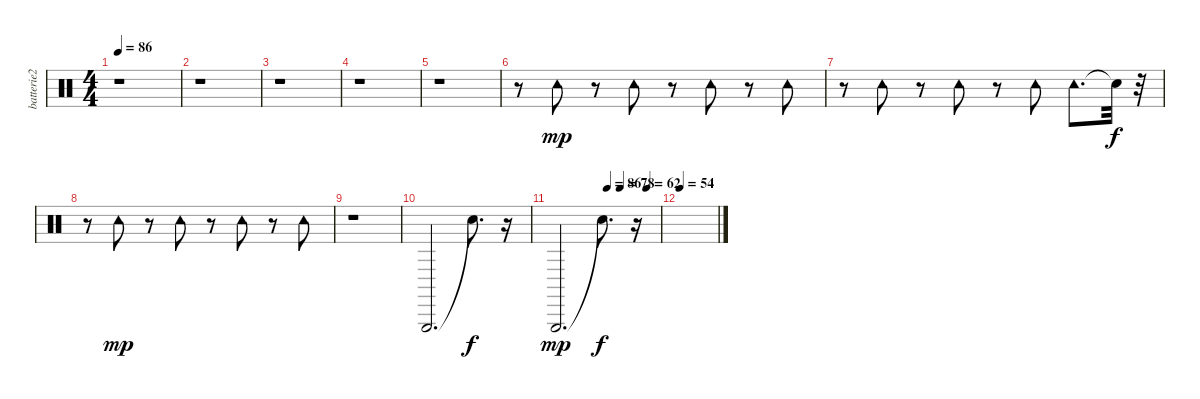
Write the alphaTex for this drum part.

\track ("batterie2" "batterie2") {instrument percussion}
\staff {score}
\articulation defaults
\ts (4 4)
\tempo 86
\clef neutral
\ks c
r.1{dy mp} |
r.1 |
r.1 |
r.1 |
r.1 |
r.8 "Tambourine (hit)".8 r.8 "Tambourine (hit)".8 r.8 "Tambourine (hit)".8 r.8 "Tambourine (hit)".8 |
r.8 "Tambourine (hit)".8 r.8 "Tambourine (hit)".8 r.8 "Tambourine (hit)".8 "Tambourine (hit)".8{d} "Snare (hit)"{t}.32{dy f} r.32 |
r.8 "Tambourine (hit)".8{dy mp} r.8 "Tambourine (hit)".8 r.8 "Tambourine (hit)".8 r.8 "Tambourine (hit)".8 |
r.1 |
"Triangle (hit)".2{d} "Snare (hit)"{t}.8{d dy f} r.16 |
\tempo (86 0.5)
\tempo (78 0.625)
\tempo (62 0.875)
"Triangle (hit)".2{d dy mp} "Snare (hit)"{t}.8{d dy f} r.16 |
\tempo 54
